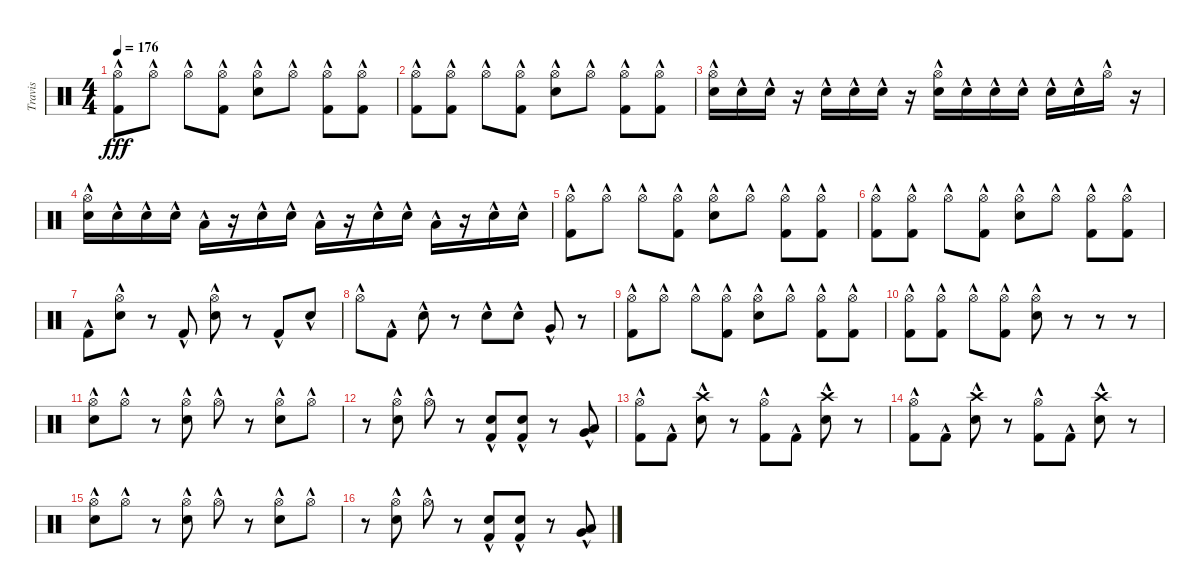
\track ("Travis" "Travis") {instrument percussion}
\staff {score}
\articulation defaults
\ts (4 4)
\tempo 176
\clef neutral
\ks c
("Kick (hit) 2"{hac} "Hi-Hat (open)"{hac}).8{dy fff} "Hi-Hat (open)"{hac}.8 "Hi-Hat (open)"{hac}.8 ("Kick (hit) 2"{hac} "Hi-Hat (open)"{hac}).8 ("Snare (hit) 2"{hac} "Hi-Hat (open)"{hac}).8 "Hi-Hat (open)"{hac}.8 ("Kick (hit) 2"{hac} "Hi-Hat (open)"{hac}).8 ("Kick (hit) 2"{hac} "Hi-Hat (open)"{hac}).8 |
("Kick (hit) 2"{hac} "Hi-Hat (open)"{hac}).8 ("Kick (hit) 2"{hac} "Hi-Hat (open)"{hac}).8 "Hi-Hat (open)"{hac}.8 ("Kick (hit) 2"{hac} "Hi-Hat (open)"{hac}).8 ("Snare (hit) 2"{hac} "Hi-Hat (open)"{hac}).8 "Hi-Hat (open)"{hac}.8 ("Kick (hit) 2"{hac} "Hi-Hat (open)"{hac}).8 ("Kick (hit) 2"{hac} "Hi-Hat (open)"{hac}).8 |
("Snare (hit) 2"{hac} "Hi-Hat (open)"{hac}).16 "Snare (hit) 2"{hac}.16 "Snare (hit) 2"{hac}.16 r.16 "Snare (hit) 2"{hac}.16 "Snare (hit) 2"{hac}.16 "Snare (hit) 2"{hac}.16 r.16 ("Snare (hit) 2"{hac} "Hi-Hat (open)"{hac}).16 "Snare (hit) 2"{hac}.16 "Snare (hit) 2"{hac}.16 "Snare (hit) 2"{hac}.16 "Snare (hit) 2"{hac}.16 "Snare (hit) 2"{hac}.16 "Hi-Hat (open)"{hac}.16 r.16 |
("Snare (hit) 2"{hac} "Hi-Hat (open)"{hac}).16 "Snare (hit) 2"{hac}.16 "Snare (hit) 2"{hac}.16 "Snare (hit) 2"{hac}.16 "Low Tom (hit)"{hac}.16 r.16 "Snare (hit) 2"{hac}.16 "Snare (hit) 2"{hac}.16 "Low Tom (hit)"{hac}.16 r.16 "Snare (hit) 2"{hac}.16 "Snare (hit) 2"{hac}.16 "Low Tom (hit)"{hac}.16 r.16 "Snare (hit) 2"{hac}.16 "Snare (hit) 2"{hac}.16 |
("Kick (hit) 2"{hac} "Hi-Hat (open)"{hac}).8 "Hi-Hat (open)"{hac}.8 "Hi-Hat (open)"{hac}.8 ("Kick (hit) 2"{hac} "Hi-Hat (open)"{hac}).8 ("Snare (hit) 2"{hac} "Hi-Hat (open)"{hac}).8 "Hi-Hat (open)"{hac}.8 ("Kick (hit) 2"{hac} "Hi-Hat (open)"{hac}).8 ("Kick (hit) 2"{hac} "Hi-Hat (open)"{hac}).8 |
("Kick (hit) 2"{hac} "Hi-Hat (open)"{hac}).8 ("Kick (hit) 2"{hac} "Hi-Hat (open)"{hac}).8 "Hi-Hat (open)"{hac}.8 ("Kick (hit) 2"{hac} "Hi-Hat (open)"{hac}).8 ("Snare (hit) 2"{hac} "Hi-Hat (open)"{hac}).8 "Hi-Hat (open)"{hac}.8 ("Kick (hit) 2"{hac} "Hi-Hat (open)"{hac}).8 ("Kick (hit) 2"{hac} "Hi-Hat (open)"{hac}).8 |
"Kick (hit) 2"{hac}.8 ("Snare (hit) 2"{hac} "Hi-Hat (open)"{hac}).8 r.8 "Kick (hit) 2"{hac}.8 ("Snare (hit) 2"{hac} "Hi-Hat (open)"{hac}).8 r.8 "Kick (hit) 2"{hac}.8 "Snare (hit) 2"{hac}.8 |
"Hi-Hat (open)"{hac}.8 "Kick (hit) 2"{hac}.8 "Snare (hit) 2"{hac}.8 r.8 "Snare (hit) 2"{hac}.8 "Snare (hit) 2"{hac}.8 "Very Low Tom (hit)"{hac}.8 r.8 |
("Kick (hit) 2"{hac} "Hi-Hat (open)"{hac}).8 "Hi-Hat (open)"{hac}.8 "Hi-Hat (open)"{hac}.8 ("Kick (hit) 2"{hac} "Hi-Hat (open)"{hac}).8 ("Snare (hit) 2"{hac} "Hi-Hat (open)"{hac}).8 "Hi-Hat (open)"{hac}.8 ("Kick (hit) 2"{hac} "Hi-Hat (open)"{hac}).8 ("Kick (hit) 2"{hac} "Hi-Hat (open)"{hac}).8 |
("Kick (hit) 2"{hac} "Hi-Hat (open)"{hac}).8 ("Kick (hit) 2"{hac} "Hi-Hat (open)"{hac}).8 "Hi-Hat (open)"{hac}.8 ("Kick (hit) 2"{hac} "Hi-Hat (open)"{hac}).8 ("Snare (hit) 2"{hac} "Hi-Hat (open)"{hac}).8 r.8 r.8 r.8 |
("Snare (hit) 2"{hac} "Hi-Hat (open)"{hac}).8 "Hi-Hat (open)"{hac}.8 r.8 ("Snare (hit) 2"{hac} "Hi-Hat (open)"{hac}).8 "Hi-Hat (open)"{hac}.8 r.8 ("Snare (hit) 2"{hac} "Hi-Hat (open)"{hac}).8 "Hi-Hat (open)"{hac}.8 |
r.8 ("Snare (hit) 2"{hac} "Hi-Hat (open)"{hac}).8 "Hi-Hat (open)"{hac}.8 r.8 ("Kick (hit) 2"{hac} "Snare (hit) 2"{hac}).8 ("Kick (hit) 2"{hac} "Snare (hit) 2"{hac}).8 r.8 ("Very Low Tom (hit)"{hac} "Low Tom (hit)"{hac}).8 |
("Kick (hit) 2"{hac} "Hi-Hat (open)"{hac}).8 "Kick (hit) 2"{hac}.8 ("Snare (hit) 2"{hac} "Crash high (hit)"{hac}).8 r.8 ("Kick (hit) 2"{hac} "Hi-Hat (open)"{hac}).8 "Kick (hit) 2"{hac}.8 ("Snare (hit) 2"{hac} "Crash high (hit)"{hac}).8 r.8 |
("Kick (hit) 2"{hac} "Hi-Hat (open)"{hac}).8 "Kick (hit) 2"{hac}.8 ("Snare (hit) 2"{hac} "Crash high (hit)"{hac}).8 r.8 ("Kick (hit) 2"{hac} "Hi-Hat (open)"{hac}).8 "Kick (hit) 2"{hac}.8 ("Snare (hit) 2"{hac} "Crash high (hit)"{hac}).8 r.8 |
("Snare (hit) 2"{hac} "Hi-Hat (open)"{hac}).8 "Hi-Hat (open)"{hac}.8 r.8 ("Snare (hit) 2"{hac} "Hi-Hat (open)"{hac}).8 "Hi-Hat (open)"{hac}.8 r.8 ("Snare (hit) 2"{hac} "Hi-Hat (open)"{hac}).8 "Hi-Hat (open)"{hac}.8 |
r.8 ("Snare (hit) 2"{hac} "Hi-Hat (open)"{hac}).8 "Hi-Hat (open)"{hac}.8 r.8 ("Kick (hit) 2"{hac} "Snare (hit) 2"{hac}).8 ("Kick (hit) 2"{hac} "Snare (hit) 2"{hac}).8 r.8 ("Very Low Tom (hit)"{hac} "Low Tom (hit)"{hac}).8
